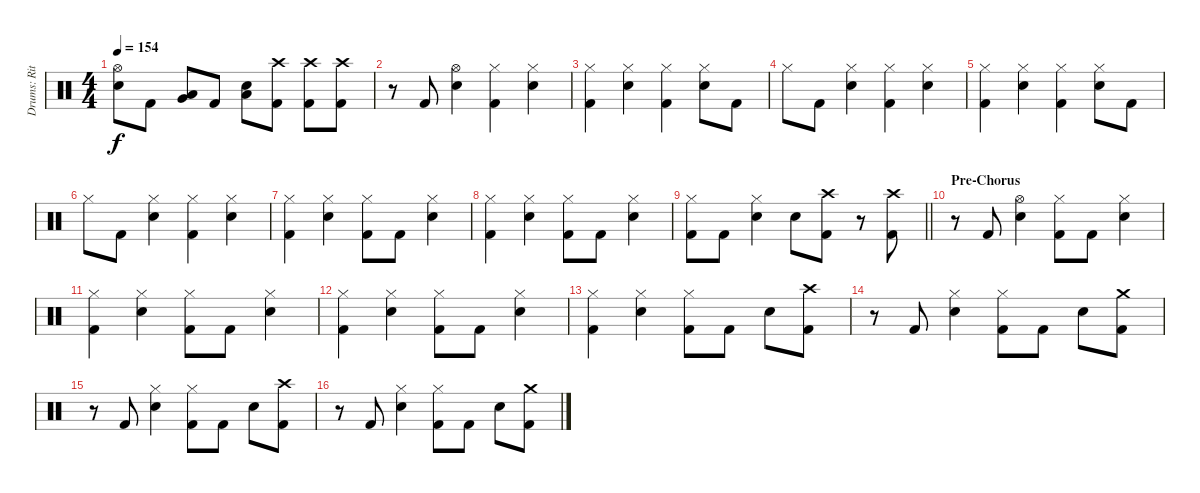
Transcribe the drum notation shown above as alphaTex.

\track ("Drums: Ritsu Tainaka" "Drums: Rit") {instrument percussion}
\staff {score}
\articulation defaults
\ts (4 4)
\tempo 154
\clef neutral
\ks c
("Hi-Hat (open)" "Electric Snare (hit)").8{dy f} "Kick (hit) 2".8 ("Low Tom (hit)" "Very Low Tom (hit)").8 "Kick (hit) 2".8 ("Electric Snare (hit)" "Low Floor Tom (hit)").8 ("Crash high (hit)" "Kick (hit) 2").8 ("Crash high (hit)" "Kick (hit) 2").8 ("Crash high (hit)" "Kick (hit) 2").8 |
r.8 "Kick (hit) 2".8 ("Hi-Hat (open)" "Electric Snare (hit)").4 ("Hi-Hat (closed)" "Kick (hit) 2").4 ("Hi-Hat (closed)" "Electric Snare (hit)").4 |
("Hi-Hat (closed)" "Kick (hit) 2").4 ("Hi-Hat (closed)" "Electric Snare (hit)").4 ("Hi-Hat (closed)" "Kick (hit) 2").4 ("Hi-Hat (closed)" "Electric Snare (hit)").8 "Kick (hit) 2".8 |
"Hi-Hat (closed)".8 "Kick (hit) 2".8 ("Hi-Hat (closed)" "Electric Snare (hit)").4 ("Hi-Hat (closed)" "Kick (hit) 2").4 ("Hi-Hat (closed)" "Electric Snare (hit)").4 |
("Hi-Hat (closed)" "Kick (hit) 2").4 ("Hi-Hat (closed)" "Electric Snare (hit)").4 ("Hi-Hat (closed)" "Kick (hit) 2").4 ("Hi-Hat (closed)" "Electric Snare (hit)").8 "Kick (hit) 2".8 |
"Hi-Hat (closed)".8 "Kick (hit) 2".8 ("Hi-Hat (closed)" "Electric Snare (hit)").4 ("Hi-Hat (closed)" "Kick (hit) 2").4 ("Hi-Hat (closed)" "Electric Snare (hit)").4 |
("Hi-Hat (closed)" "Kick (hit) 2").4 ("Hi-Hat (closed)" "Electric Snare (hit)").4 ("Hi-Hat (closed)" "Kick (hit) 2").8 "Kick (hit) 2".8 ("Hi-Hat (closed)" "Electric Snare (hit)").4 |
("Hi-Hat (closed)" "Kick (hit) 2").4 ("Hi-Hat (closed)" "Electric Snare (hit)").4 ("Hi-Hat (closed)" "Kick (hit) 2").8 "Kick (hit) 2".8 ("Hi-Hat (closed)" "Electric Snare (hit)").4 |
\barLineRight lightlight
("Hi-Hat (closed)" "Kick (hit) 2").8 "Kick (hit) 2".8 ("Hi-Hat (closed)" "Electric Snare (hit)").4 "Electric Snare (hit)".8 ("Crash high (hit)" "Kick (hit) 2").8 r.8{volume 0} ("Crash high (hit)" "Kick (hit) 2").8{volume 16} |
\section ("" "Pre-Chorus")
r.8 "Kick (hit) 2".8 ("Hi-Hat (open)" "Electric Snare (hit)").4 ("Hi-Hat (closed)" "Kick (hit) 2").8 "Kick (hit) 2".8 ("Hi-Hat (closed)" "Electric Snare (hit)").4 |
("Hi-Hat (closed)" "Kick (hit) 2").4 ("Hi-Hat (closed)" "Electric Snare (hit)").4 ("Hi-Hat (closed)" "Kick (hit) 2").8 "Kick (hit) 2".8 ("Hi-Hat (closed)" "Electric Snare (hit)").4 |
("Hi-Hat (closed)" "Kick (hit) 2").4 ("Hi-Hat (closed)" "Electric Snare (hit)").4 ("Hi-Hat (closed)" "Kick (hit) 2").8 "Kick (hit) 2".8 ("Hi-Hat (closed)" "Electric Snare (hit)").4 |
("Hi-Hat (closed)" "Kick (hit) 2").4 ("Hi-Hat (closed)" "Electric Snare (hit)").4 ("Hi-Hat (closed)" "Kick (hit) 2").8 "Kick (hit) 2".8 "Electric Snare (hit)".8 ("Crash high (hit)" "Kick (hit) 2").8 |
r.8 "Kick (hit) 2".8 ("Hi-Hat (closed)" "Electric Snare (hit)").4 ("Hi-Hat (closed)" "Kick (hit) 2").8 "Kick (hit) 2".8 "Electric Snare (hit)".8 ("Crash medium (hit)" "Kick (hit) 2").8 |
r.8 "Kick (hit) 2".8 ("Hi-Hat (closed)" "Electric Snare (hit)").4 ("Hi-Hat (closed)" "Kick (hit) 2").8 "Kick (hit) 2".8 "Electric Snare (hit)".8 ("Crash high (hit)" "Kick (hit) 2").8 |
r.8 "Kick (hit) 2".8 ("Hi-Hat (closed)" "Electric Snare (hit)").4 ("Hi-Hat (closed)" "Kick (hit) 2").8 "Kick (hit) 2".8 "Electric Snare (hit)".8 ("Crash medium (hit)" "Kick (hit) 2").8
